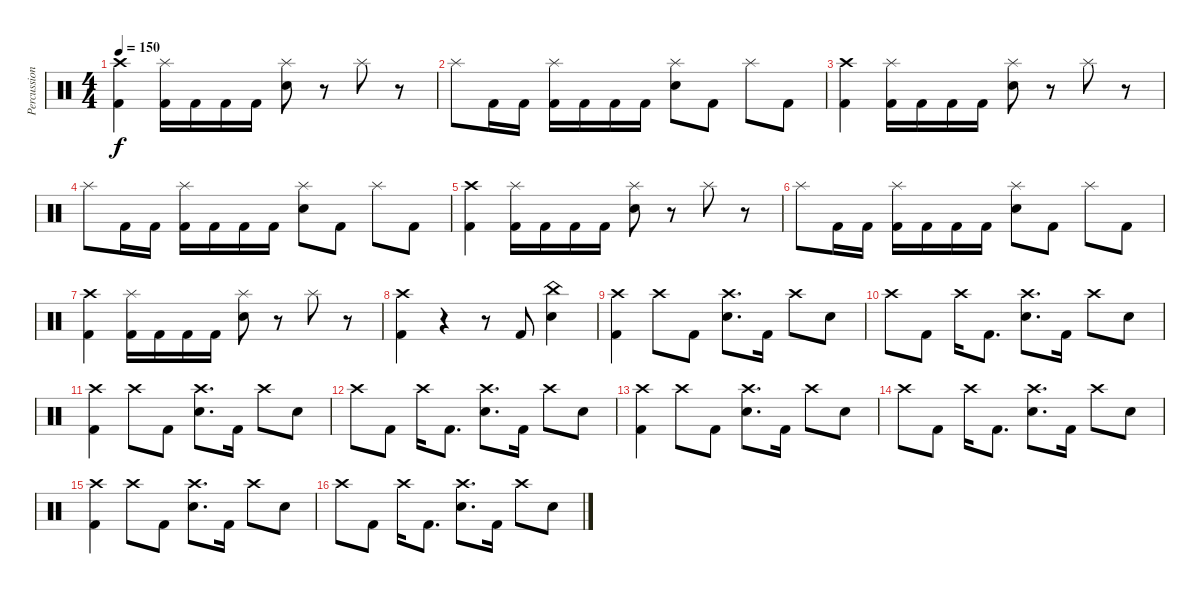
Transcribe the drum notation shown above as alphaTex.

\track ("Percussion" "Percussion") {instrument percussion}
\staff {score}
\articulation defaults
\ts (4 4)
\tempo 150
\clef neutral
\ks c
("Crash high (hit)" "Kick (hit) 2").4{dy f} ("Splash (hit)" "Kick (hit) 2").16 "Kick (hit) 2".16 "Kick (hit) 2".16 "Kick (hit) 2".16 ("Splash (hit)" "Electric Snare (hit)").8 r.8 "Splash (hit)".8 r.8 |
"Splash (hit)".8 "Kick (hit) 2".16 "Kick (hit) 2".16 ("Splash (hit)" "Kick (hit) 2").16 "Kick (hit) 2".16 "Kick (hit) 2".16 "Kick (hit) 2".16 ("Splash (hit)" "Electric Snare (hit)").8 "Kick (hit) 2".8 "Splash (hit)".8 "Kick (hit) 2".8 |
("Crash high (hit)" "Kick (hit) 2").4 ("Splash (hit)" "Kick (hit) 2").16 "Kick (hit) 2".16 "Kick (hit) 2".16 "Kick (hit) 2".16 ("Splash (hit)" "Electric Snare (hit)").8 r.8 "Splash (hit)".8 r.8 |
"Splash (hit)".8 "Kick (hit) 2".16 "Kick (hit) 2".16 ("Splash (hit)" "Kick (hit) 2").16 "Kick (hit) 2".16 "Kick (hit) 2".16 "Kick (hit) 2".16 ("Splash (hit)" "Electric Snare (hit)").8 "Kick (hit) 2".8 "Splash (hit)".8 "Kick (hit) 2".8 |
("Crash high (hit)" "Kick (hit) 2").4 ("Splash (hit)" "Kick (hit) 2").16 "Kick (hit) 2".16 "Kick (hit) 2".16 "Kick (hit) 2".16 ("Splash (hit)" "Electric Snare (hit)").8 r.8 "Splash (hit)".8 r.8 |
"Splash (hit)".8 "Kick (hit) 2".16 "Kick (hit) 2".16 ("Splash (hit)" "Kick (hit) 2").16 "Kick (hit) 2".16 "Kick (hit) 2".16 "Kick (hit) 2".16 ("Splash (hit)" "Electric Snare (hit)").8 "Kick (hit) 2".8 "Splash (hit)".8 "Kick (hit) 2".8 |
("Crash high (hit)" "Kick (hit) 2").4 ("Splash (hit)" "Kick (hit) 2").16 "Kick (hit) 2".16 "Kick (hit) 2".16 "Kick (hit) 2".16 ("Splash (hit)" "Electric Snare (hit)").8 r.8 "Splash (hit)".8 r.8 |
("Crash high (hit)" "Kick (hit) 2").4 r.4 r.8 "Kick (hit) 2".8 ("China (hit)" "Electric Snare (hit)").4 |
("Crash high (hit)" "Kick (hit) 2").4 "Crash high (hit)".8 "Kick (hit) 2".8 ("Crash high (hit)" "Electric Snare (hit)").8{d} "Kick (hit) 2".16 "Crash high (hit)".8 "Electric Snare (hit)".8 |
"Crash high (hit)".8 "Kick (hit) 2".8 "Crash high (hit)".16 "Kick (hit) 2".8{d} ("Crash high (hit)" "Electric Snare (hit)").8{d} "Kick (hit) 2".16 "Crash high (hit)".8 "Electric Snare (hit)".8 |
("Crash high (hit)" "Kick (hit) 2").4 "Crash high (hit)".8 "Kick (hit) 2".8 ("Crash high (hit)" "Electric Snare (hit)").8{d} "Kick (hit) 2".16 "Crash high (hit)".8 "Electric Snare (hit)".8 |
"Crash high (hit)".8 "Kick (hit) 2".8 "Crash high (hit)".16 "Kick (hit) 2".8{d} ("Crash high (hit)" "Electric Snare (hit)").8{d} "Kick (hit) 2".16 "Crash high (hit)".8 "Electric Snare (hit)".8 |
("Crash high (hit)" "Kick (hit) 2").4 "Crash high (hit)".8 "Kick (hit) 2".8 ("Crash high (hit)" "Electric Snare (hit)").8{d} "Kick (hit) 2".16 "Crash high (hit)".8 "Electric Snare (hit)".8 |
"Crash high (hit)".8 "Kick (hit) 2".8 "Crash high (hit)".16 "Kick (hit) 2".8{d} ("Crash high (hit)" "Electric Snare (hit)").8{d} "Kick (hit) 2".16 "Crash high (hit)".8 "Electric Snare (hit)".8 |
("Crash high (hit)" "Kick (hit) 2").4 "Crash high (hit)".8 "Kick (hit) 2".8 ("Crash high (hit)" "Electric Snare (hit)").8{d} "Kick (hit) 2".16 "Crash high (hit)".8 "Electric Snare (hit)".8 |
"Crash high (hit)".8 "Kick (hit) 2".8 "Crash high (hit)".16 "Kick (hit) 2".8{d} ("Crash high (hit)" "Electric Snare (hit)").8{d} "Kick (hit) 2".16 "Crash high (hit)".8 "Electric Snare (hit)".8
